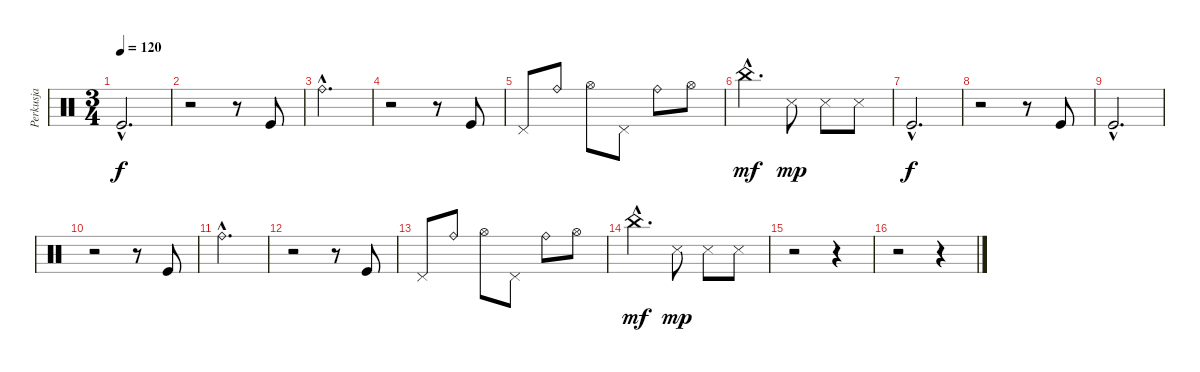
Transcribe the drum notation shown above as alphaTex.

\track ("Perkusja" "Perkusja") {instrument percussion}
\staff {score}
\articulation defaults
\ts (3 4)
\tempo 120
\clef neutral
\ks c "Kick (hit)"{hac}.2{d dy f}
|
r.2 r.8 "Kick (hit)".8 |
"Ride (bell)"{hac}.2{d} |
r.2 r.8 "Kick (hit)".8 |
"Pedal Hi-Hat (hit)".8 "Ride (bell)".8 "Hi-Hat (open)".8 "Pedal Hi-Hat (hit)".8 "Ride (bell)".8 "Hi-Hat (open)".8 |
"China (hit)"{hac}.4{d dy mf} "Snare (side stick) 3".8{dy mp} "Snare (side stick) 3".8 "Snare (side stick) 3".8 |
"Kick (hit)"{hac}.2{d dy f} |
r.2 r.8 "Kick (hit)".8 |
"Kick (hit)"{hac}.2{d} |
r.2 r.8 "Kick (hit)".8 |
"Ride (bell)"{hac}.2{d} |
r.2 r.8 "Kick (hit)".8 |
"Pedal Hi-Hat (hit)".8 "Ride (bell)".8 "Hi-Hat (open)".8 "Pedal Hi-Hat (hit)".8 "Ride (bell)".8 "Hi-Hat (open)".8 |
"China (hit)"{hac}.4{d dy mf} "Snare (side stick) 3".8{dy mp} "Snare (side stick) 3".8 "Snare (side stick) 3".8 |
r.2 r.4 |
r.2 r.4
